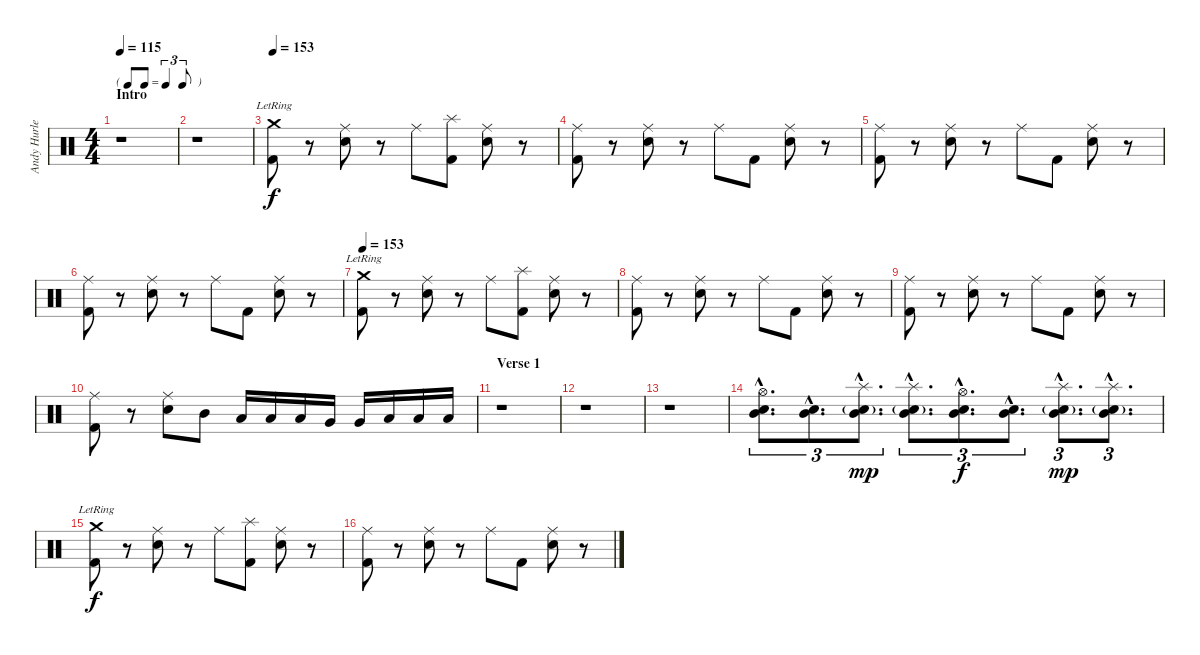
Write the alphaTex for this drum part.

\track ("Andy Hurley" "Andy Hurle") {instrument percussion}
\staff {score}
\articulation defaults
\ts (4 4)
\tf triplet8th
\section ("" "Intro")
\tempo 115
\clef neutral
\ks c
r.1{dy f} |
r.1 |
\tempo 153
("Crash medium (hit)"{lr} "Kick (hit) 2").8 r.8 ("Ride (middle)" "Electric Snare (hit)").8 r.8 "Ride (middle)".8 ("Splash (hit)" "Kick (hit) 2").8 ("Ride (middle)" "Electric Snare (hit)").8 r.8 |
("Ride (middle)" "Kick (hit) 2").8 r.8 ("Ride (middle)" "Electric Snare (hit)").8 r.8 "Ride (middle)".8 "Kick (hit) 2".8 ("Ride (middle)" "Electric Snare (hit)").8 r.8 |
("Ride (middle)" "Kick (hit) 2").8 r.8 ("Ride (middle)" "Electric Snare (hit)").8 r.8 "Ride (middle)".8 "Kick (hit) 2".8 ("Ride (middle)" "Electric Snare (hit)").8 r.8 |
("Ride (middle)" "Kick (hit) 2").8 r.8 ("Ride (middle)" "Electric Snare (hit)").8 r.8 "Ride (middle)".8 "Kick (hit) 2".8 ("Ride (middle)" "Electric Snare (hit)").8 r.8 |
\tempo 153
("Crash medium (hit)"{lr} "Kick (hit) 2").8 r.8 ("Ride (middle)" "Electric Snare (hit)").8 r.8 "Ride (middle)".8 ("Splash (hit)" "Kick (hit) 2").8 ("Ride (middle)" "Electric Snare (hit)").8 r.8 |
("Ride (middle)" "Kick (hit) 2").8 r.8 ("Ride (middle)" "Electric Snare (hit)").8 r.8 "Ride (middle)".8 "Kick (hit) 2".8 ("Ride (middle)" "Electric Snare (hit)").8 r.8 |
("Ride (middle)" "Kick (hit) 2").8 r.8 ("Ride (middle)" "Electric Snare (hit)").8 r.8 "Ride (middle)".8 "Kick (hit) 2".8 ("Ride (middle)" "Electric Snare (hit)").8 r.8 |
("Ride (middle)" "Kick (hit) 2").8 r.8 ("Ride (middle)" "Electric Snare (hit)").8 "Mid Tom (hit)".8 "Low Tom (hit)".16 "Low Tom (hit)".16 "Low Tom (hit)".16 "Very Low Tom (hit)".16 "Very Low Tom (hit)".16 "Low Floor Tom (hit)".16 "Low Tom (hit)".16 "Low Floor Tom (hit)".16 |
\section ("" "Verse 1")
r.1 |
r.1 |
r.1 |
("Hi-Hat (open)"{hac} "Mid Tom (hit)"{hac} "Snare (hit) 2"{hac}).8{d tu (3 2)} ("Mid Tom (hit)"{hac} "Snare (hit) 2"{hac}).8{d tu (3 2)} ("Splash (hit)"{hac} "Mid Tom (hit)"{hac} "Electric Snare (hit)"{g hac}).8{d tu (3 2) dy mp} ("Splash (hit)"{hac} "Mid Tom (hit)"{hac} "Electric Snare (hit)"{g hac}).8{d tu (3 2)} ("Hi-Hat (open)"{hac} "Mid Tom (hit)"{hac} "Snare (hit) 2"{hac}).8{d tu (3 2) dy f} ("Mid Tom (hit)"{hac} "Snare (hit) 2"{hac}).8{d tu (3 2)} ("Splash (hit)"{hac} "Mid Tom (hit)"{hac} "Electric Snare (hit)"{g hac}).8{d tu (3 2) dy mp} ("Splash (hit)"{hac} "Mid Tom (hit)"{hac} "Electric Snare (hit)"{g hac}).8{d tu (3 2)} |
("Crash medium (hit)"{lr} "Kick (hit) 2").8{dy f} r.8 ("Ride (middle)" "Electric Snare (hit)").8 r.8 "Ride (middle)".8 ("Splash (hit)" "Kick (hit) 2").8 ("Ride (middle)" "Electric Snare (hit)").8 r.8 |
("Ride (middle)" "Kick (hit) 2").8 r.8 ("Ride (middle)" "Electric Snare (hit)").8 r.8 "Ride (middle)".8 "Kick (hit) 2".8 ("Ride (middle)" "Electric Snare (hit)").8 r.8
